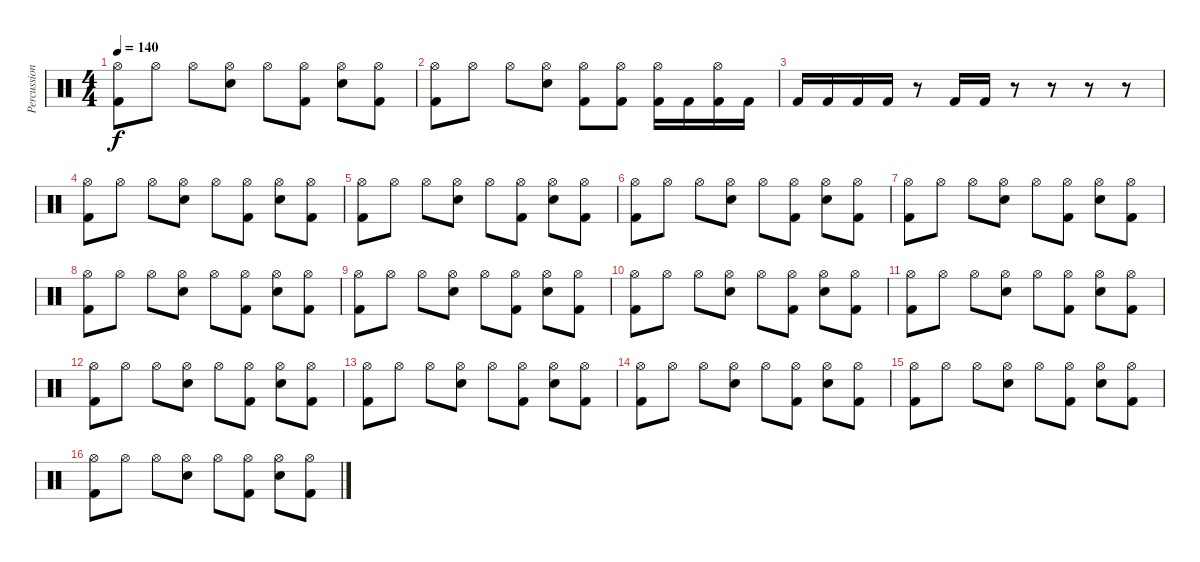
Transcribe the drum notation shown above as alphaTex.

\track ("Percussion" "Percussion") {instrument percussion}
\staff {score}
\articulation defaults
\ts (4 4)
\tempo 140
\clef neutral
\ks c
("Hi-Hat (open)" "Kick (hit) 2").8{dy f} "Hi-Hat (open)".8 "Hi-Hat (open)".8 ("Hi-Hat (open)" "Electric Snare (hit)").8 "Hi-Hat (open)".8 ("Hi-Hat (open)" "Kick (hit) 2").8 ("Hi-Hat (open)" "Electric Snare (hit)").8 ("Hi-Hat (open)" "Kick (hit) 2").8 |
("Hi-Hat (open)" "Kick (hit) 2").8 "Hi-Hat (open)".8 "Hi-Hat (open)".8 ("Hi-Hat (open)" "Electric Snare (hit)").8 ("Hi-Hat (open)" "Kick (hit) 2").8 ("Hi-Hat (open)" "Kick (hit) 2").8 ("Hi-Hat (open)" "Kick (hit) 2").16 "Kick (hit) 2".16 ("Hi-Hat (open)" "Kick (hit) 2").16 "Kick (hit) 2".16 |
"Kick (hit) 2".16 "Kick (hit) 2".16 "Kick (hit) 2".16 "Kick (hit) 2".16 r.8 "Kick (hit) 2".16 "Kick (hit) 2".16 r.8 r.8 r.8 r.8 |
("Hi-Hat (open)" "Kick (hit) 2").8 "Hi-Hat (open)".8 "Hi-Hat (open)".8 ("Hi-Hat (open)" "Electric Snare (hit)").8 "Hi-Hat (open)".8 ("Hi-Hat (open)" "Kick (hit) 2").8 ("Hi-Hat (open)" "Electric Snare (hit)").8 ("Hi-Hat (open)" "Kick (hit) 2").8 |
("Hi-Hat (open)" "Kick (hit) 2").8 "Hi-Hat (open)".8 "Hi-Hat (open)".8 ("Hi-Hat (open)" "Electric Snare (hit)").8 "Hi-Hat (open)".8 ("Hi-Hat (open)" "Kick (hit) 2").8 ("Hi-Hat (open)" "Electric Snare (hit)").8 ("Hi-Hat (open)" "Kick (hit) 2").8 |
("Hi-Hat (open)" "Kick (hit) 2").8 "Hi-Hat (open)".8 "Hi-Hat (open)".8 ("Hi-Hat (open)" "Electric Snare (hit)").8 "Hi-Hat (open)".8 ("Hi-Hat (open)" "Kick (hit) 2").8 ("Hi-Hat (open)" "Electric Snare (hit)").8 ("Hi-Hat (open)" "Kick (hit) 2").8 |
("Hi-Hat (open)" "Kick (hit) 2").8 "Hi-Hat (open)".8 "Hi-Hat (open)".8 ("Hi-Hat (open)" "Electric Snare (hit)").8 "Hi-Hat (open)".8 ("Hi-Hat (open)" "Kick (hit) 2").8 ("Hi-Hat (open)" "Electric Snare (hit)").8 ("Hi-Hat (open)" "Kick (hit) 2").8 |
("Hi-Hat (open)" "Kick (hit) 2").8 "Hi-Hat (open)".8 "Hi-Hat (open)".8 ("Hi-Hat (open)" "Electric Snare (hit)").8 "Hi-Hat (open)".8 ("Hi-Hat (open)" "Kick (hit) 2").8 ("Hi-Hat (open)" "Electric Snare (hit)").8 ("Hi-Hat (open)" "Kick (hit) 2").8 |
("Hi-Hat (open)" "Kick (hit) 2").8 "Hi-Hat (open)".8 "Hi-Hat (open)".8 ("Hi-Hat (open)" "Electric Snare (hit)").8 "Hi-Hat (open)".8 ("Hi-Hat (open)" "Kick (hit) 2").8 ("Hi-Hat (open)" "Electric Snare (hit)").8 ("Hi-Hat (open)" "Kick (hit) 2").8 |
("Hi-Hat (open)" "Kick (hit) 2").8 "Hi-Hat (open)".8 "Hi-Hat (open)".8 ("Hi-Hat (open)" "Electric Snare (hit)").8 "Hi-Hat (open)".8 ("Hi-Hat (open)" "Kick (hit) 2").8 ("Hi-Hat (open)" "Electric Snare (hit)").8 ("Hi-Hat (open)" "Kick (hit) 2").8 |
("Hi-Hat (open)" "Kick (hit) 2").8 "Hi-Hat (open)".8 "Hi-Hat (open)".8 ("Hi-Hat (open)" "Electric Snare (hit)").8 "Hi-Hat (open)".8 ("Hi-Hat (open)" "Kick (hit) 2").8 ("Hi-Hat (open)" "Electric Snare (hit)").8 ("Hi-Hat (open)" "Kick (hit) 2").8 |
("Hi-Hat (open)" "Kick (hit) 2").8 "Hi-Hat (open)".8 "Hi-Hat (open)".8 ("Hi-Hat (open)" "Electric Snare (hit)").8 "Hi-Hat (open)".8 ("Hi-Hat (open)" "Kick (hit) 2").8 ("Hi-Hat (open)" "Electric Snare (hit)").8 ("Hi-Hat (open)" "Kick (hit) 2").8 |
("Hi-Hat (open)" "Kick (hit) 2").8 "Hi-Hat (open)".8 "Hi-Hat (open)".8 ("Hi-Hat (open)" "Electric Snare (hit)").8 "Hi-Hat (open)".8 ("Hi-Hat (open)" "Kick (hit) 2").8 ("Hi-Hat (open)" "Electric Snare (hit)").8 ("Hi-Hat (open)" "Kick (hit) 2").8 |
("Hi-Hat (open)" "Kick (hit) 2").8 "Hi-Hat (open)".8 "Hi-Hat (open)".8 ("Hi-Hat (open)" "Electric Snare (hit)").8 "Hi-Hat (open)".8 ("Hi-Hat (open)" "Kick (hit) 2").8 ("Hi-Hat (open)" "Electric Snare (hit)").8 ("Hi-Hat (open)" "Kick (hit) 2").8 |
("Hi-Hat (open)" "Kick (hit) 2").8 "Hi-Hat (open)".8 "Hi-Hat (open)".8 ("Hi-Hat (open)" "Electric Snare (hit)").8 "Hi-Hat (open)".8 ("Hi-Hat (open)" "Kick (hit) 2").8 ("Hi-Hat (open)" "Electric Snare (hit)").8 ("Hi-Hat (open)" "Kick (hit) 2").8 |
("Hi-Hat (open)" "Kick (hit) 2").8 "Hi-Hat (open)".8 "Hi-Hat (open)".8 ("Hi-Hat (open)" "Electric Snare (hit)").8 "Hi-Hat (open)".8 ("Hi-Hat (open)" "Kick (hit) 2").8 ("Hi-Hat (open)" "Electric Snare (hit)").8 ("Hi-Hat (open)" "Kick (hit) 2").8
